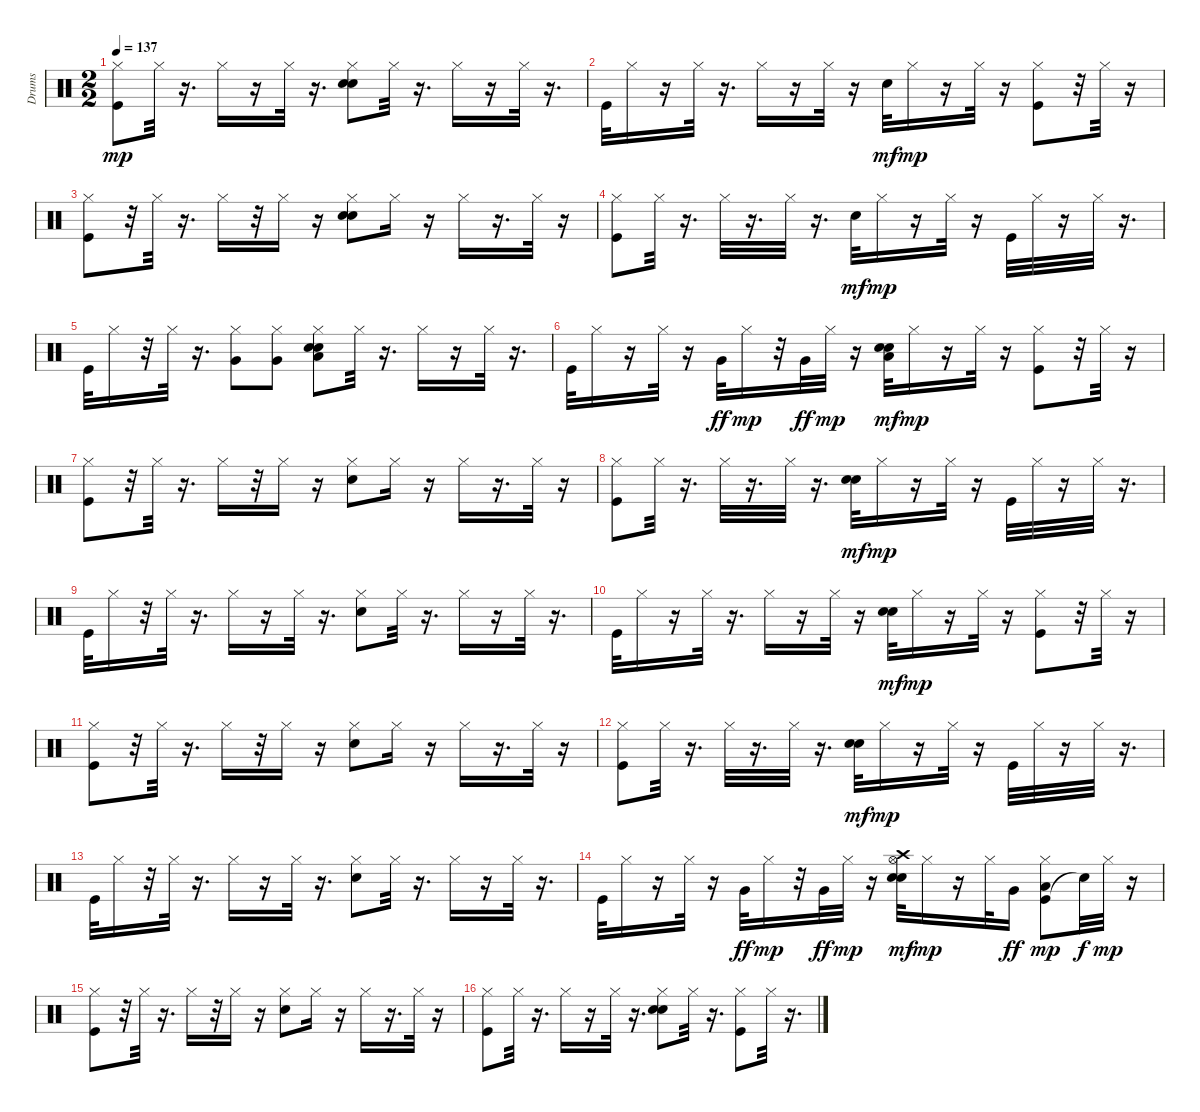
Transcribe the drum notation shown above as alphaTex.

\track ("Drums" "Drums") {instrument percussion}
\staff {score}
\articulation defaults
\ts (2 2)
\tempo 137
\clef neutral
\ks c
("Kick (hit)" "Hi-Hat (closed)").8{dy mp} "Hi-Hat (closed)".32 r.16{d} "Hi-Hat (closed)".16 r.16 "Hi-Hat (closed)".32 r.16{d} ("Snare (hit) 2" "Hand Clap (hit)" "Hi-Hat (closed)").8 "Hi-Hat (closed)".32 r.16{d} "Hi-Hat (closed)".16 r.16 "Hi-Hat (closed)".32 r.16{d} |
"Kick (hit)".32 "Hi-Hat (closed)".16 r.16 "Hi-Hat (closed)".32 r.16{d} "Hi-Hat (closed)".16 r.16 "Hi-Hat (closed)".32 r.16 "Snare (hit) 2".32{dy mf} "Hi-Hat (closed)".16{dy mp} r.16 "Hi-Hat (closed)".32 r.16 ("Kick (hit)" "Hi-Hat (closed)").8 r.32 "Hi-Hat (closed)".32 r.16 |
("Kick (hit)" "Hi-Hat (closed)").8 r.32 "Hi-Hat (closed)".32 r.16{d} "Hi-Hat (closed)".16 r.32 "Hi-Hat (closed)".16 r.16 ("Snare (hit) 2" "Hand Clap (hit)" "Hi-Hat (closed)").8 "Hi-Hat (closed)".16 r.16 "Hi-Hat (closed)".16 r.16{d} "Hi-Hat (closed)".32 r.16 |
("Kick (hit)" "Hi-Hat (closed)").8 "Hi-Hat (closed)".32 r.16{d} "Hi-Hat (closed)".32 r.16{d} "Hi-Hat (closed)".32 r.16{d} "Snare (hit) 2".32{dy mf} "Hi-Hat (closed)".16{dy mp} r.16 "Hi-Hat (closed)".32 r.16 "Kick (hit)".32 "Hi-Hat (closed)".32 r.16 "Hi-Hat (closed)".32 r.16{d} |
"Kick (hit)".32 "Hi-Hat (closed)".16 r.32 "Hi-Hat (closed)".32 r.16{d} ("Very Low Tom (hit)" "Hi-Hat (closed)").8 ("Very Low Tom (hit)" "Hi-Hat (closed)").8 ("Snare (hit) 2" "Low Floor Tom (hit)" "Hand Clap (hit)" "Hi-Hat (closed)").8 "Hi-Hat (closed)".32 r.16{d} "Hi-Hat (closed)".16 r.16 "Hi-Hat (closed)".32 r.16{d} |
"Kick (hit)".32 "Hi-Hat (closed)".16 r.16 "Hi-Hat (closed)".32 r.16 "Very Low Tom (hit)".32{dy ff} "Hi-Hat (closed)".16{dy mp} r.32 "Very Low Tom (hit)".32{dy ff} "Hi-Hat (closed)".32{dy mp} r.16 ("Snare (hit) 2" "Low Floor Tom (hit)" "Hand Clap (hit)").32{dy mf} "Hi-Hat (closed)".16{dy mp} r.16 "Hi-Hat (closed)".32 r.16 ("Kick (hit)" "Hi-Hat (closed)").8 r.32 "Hi-Hat (closed)".32 r.16 |
("Kick (hit)" "Hi-Hat (closed)").8 r.32 "Hi-Hat (closed)".32 r.16{d} "Hi-Hat (closed)".16 r.32 "Hi-Hat (closed)".16 r.16 ("Snare (hit) 2" "Hi-Hat (closed)").8 "Hi-Hat (closed)".16 r.16 "Hi-Hat (closed)".16 r.16{d} "Hi-Hat (closed)".32 r.16 |
("Kick (hit)" "Hi-Hat (closed)").8 "Hi-Hat (closed)".32 r.16{d} "Hi-Hat (closed)".32 r.16{d} "Hi-Hat (closed)".32 r.16{d} ("Snare (hit) 2" "Hand Clap (hit)").32{dy mf} "Hi-Hat (closed)".16{dy mp} r.16 "Hi-Hat (closed)".32 r.16 "Kick (hit)".32 "Hi-Hat (closed)".32 r.16 "Hi-Hat (closed)".32 r.16{d} |
"Kick (hit)".32 "Hi-Hat (closed)".16 r.32 "Hi-Hat (closed)".32 r.16{d} "Hi-Hat (closed)".16 r.16 "Hi-Hat (closed)".32 r.16{d} ("Snare (hit) 2" "Hi-Hat (closed)").8 "Hi-Hat (closed)".32 r.16{d} "Hi-Hat (closed)".16 r.16 "Hi-Hat (closed)".32 r.16{d} |
"Kick (hit)".32 "Hi-Hat (closed)".16 r.16 "Hi-Hat (closed)".32 r.16{d} "Hi-Hat (closed)".16 r.16 "Hi-Hat (closed)".32 r.16 ("Snare (hit) 2" "Hand Clap (hit)").32{dy mf} "Hi-Hat (closed)".16{dy mp} r.16 "Hi-Hat (closed)".32 r.16 ("Kick (hit)" "Hi-Hat (closed)").8 r.32 "Hi-Hat (closed)".32 r.16 |
("Kick (hit)" "Hi-Hat (closed)").8 r.32 "Hi-Hat (closed)".32 r.16{d} "Hi-Hat (closed)".16 r.32 "Hi-Hat (closed)".16 r.16 ("Snare (hit) 2" "Hi-Hat (closed)").8 "Hi-Hat (closed)".16 r.16 "Hi-Hat (closed)".16 r.16{d} "Hi-Hat (closed)".32 r.16 |
("Kick (hit)" "Hi-Hat (closed)").8 "Hi-Hat (closed)".32 r.16{d} "Hi-Hat (closed)".32 r.16{d} "Hi-Hat (closed)".32 r.16{d} ("Snare (hit) 2" "Hand Clap (hit)").32{dy mf} "Hi-Hat (closed)".16{dy mp} r.16 "Hi-Hat (closed)".32 r.16 "Kick (hit)".32 "Hi-Hat (closed)".32 r.16 "Hi-Hat (closed)".32 r.16{d} |
"Kick (hit)".32 "Hi-Hat (closed)".16 r.32 "Hi-Hat (closed)".32 r.16{d} "Hi-Hat (closed)".16 r.16 "Hi-Hat (closed)".32 r.16{d} ("Snare (hit) 2" "Hi-Hat (closed)").8 "Hi-Hat (closed)".32 r.16{d} "Hi-Hat (closed)".16 r.16 "Hi-Hat (closed)".32 r.16{d} |
"Kick (hit)".32 "Hi-Hat (closed)".16 r.16 "Hi-Hat (closed)".32 r.16 "Very Low Tom (hit)".32{dy ff} "Hi-Hat (closed)".16{dy mp} r.32 "Very Low Tom (hit)".32{dy ff} "Hi-Hat (closed)".32{dy mp} r.16 ("Snare (hit) 2" "Crash high (hit)" "Hi-Hat (open)" "Hand Clap (hit)").32{dy mf} "Hi-Hat (closed)".16{dy mp} r.16 "Hi-Hat (closed)".32 "Very Low Tom (hit)".16{dy ff} ("Kick (hit)" "Low Floor Tom (hit)" "Hi-Hat (closed)").8{dy mp} "Snare (hit)"{t}.32{dy f} "Hi-Hat (closed)".32{dy mp} r.16 |
("Kick (hit)" "Hi-Hat (closed)").8 r.32 "Hi-Hat (closed)".32 r.16{d} "Hi-Hat (closed)".16 r.32 "Hi-Hat (closed)".16 r.16 ("Snare (hit) 2" "Hi-Hat (closed)").8 "Hi-Hat (closed)".16 r.16 "Hi-Hat (closed)".16 r.16{d} "Hi-Hat (closed)".32 r.16 |
("Kick (hit)" "Hi-Hat (closed)").8 "Hi-Hat (closed)".32 r.16{d} "Hi-Hat (closed)".16 r.16 "Hi-Hat (closed)".32 r.16{d} ("Snare (hit) 2" "Hand Clap (hit)" "Hi-Hat (closed)").8 "Hi-Hat (closed)".32 r.16{d} ("Kick (hit)" "Hi-Hat (closed)").8 "Hi-Hat (closed)".32 r.16{d}
